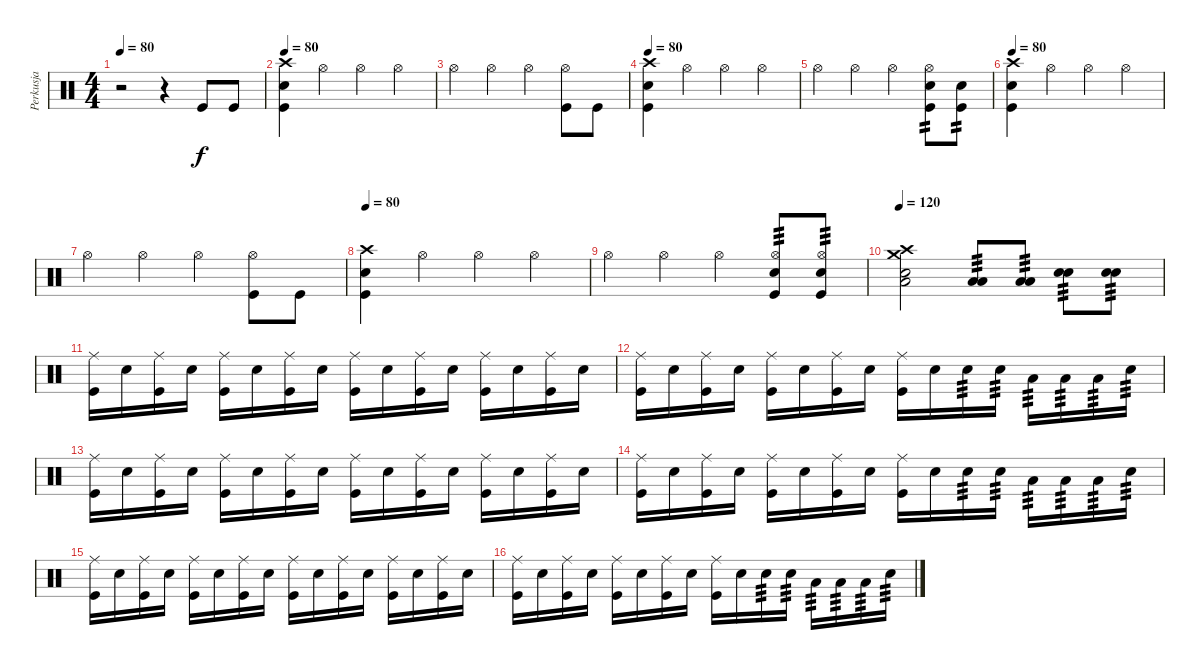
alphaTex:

\track ("Perkusja" "Perkusja") {instrument percussion}
\staff {score}
\articulation defaults
\ts (4 4)
\tempo 80
\clef neutral
\ks c
r.2{dy f} r.4 "Kick (hit)".8 "Kick (hit)".8 |
\tempo 80
("Electric Snare (hit)" "Kick (hit)" "Crash high (hit)").4 "Hi-Hat (open)".4 "Hi-Hat (open)".4 "Hi-Hat (open)".4 |
"Hi-Hat (open)".4 "Hi-Hat (open)".4 "Hi-Hat (open)".4 ("Hi-Hat (open)" "Kick (hit)").8 "Kick (hit)".8 |
\tempo 80
("Electric Snare (hit)" "Kick (hit)" "Crash high (hit)").4 "Hi-Hat (open)".4 "Hi-Hat (open)".4 "Hi-Hat (open)".4 |
"Hi-Hat (open)".4 "Hi-Hat (open)".4 "Hi-Hat (open)".4 ("Hi-Hat (open)" "Electric Snare (hit)" "Kick (hit)").8{tp 2} ("Electric Snare (hit)" "Kick (hit)").8{tp 2} |
\tempo 80
("Crash high (hit)" "Kick (hit)" "Electric Snare (hit)").4 "Hi-Hat (open)".4 "Hi-Hat (open)".4 "Hi-Hat (open)".4 |
"Hi-Hat (open)".4 "Hi-Hat (open)".4 "Hi-Hat (open)".4 ("Hi-Hat (open)" "Kick (hit)").8 "Kick (hit)".8 |
\tempo 80
("Crash high (hit)" "Electric Snare (hit)" "Kick (hit)").4 "Hi-Hat (open)".4 "Hi-Hat (open)".4 "Hi-Hat (open)".4 |
"Hi-Hat (open)".4 "Hi-Hat (open)".4 "Hi-Hat (open)".4 ("Hi-Hat (open)" "Snare (hit) 2" "Kick (hit)").8{tp 3} ("Hi-Hat (open)" "Snare (hit) 2" "Kick (hit)").8{tp 3} |
\tempo 120
("Crash medium (hit)" "Crash high (hit)" "Electric Snare (hit)" "Low Tom (hit)").2 ("Low Tom (hit)" "Low Floor Tom (hit)").8{tp 3} ("Low Tom (hit)" "Low Floor Tom (hit)").8{tp 3} ("Snare (hit) 2" "Electric Snare (hit)").8{tp 3} ("Snare (hit) 2" "Electric Snare (hit)").8{tp 3} |
("Ride (middle)" "Kick (hit)").16 "Snare (hit) 2".16 ("Ride (middle)" "Kick (hit)").16 "Snare (hit) 2".16 ("Ride (middle)" "Kick (hit)").16 "Snare (hit) 2".16 ("Ride (middle)" "Kick (hit)").16 "Snare (hit) 2".16 ("Ride (middle)" "Kick (hit)").16 "Snare (hit) 2".16 ("Ride (middle)" "Kick (hit)").16 "Snare (hit) 2".16 ("Ride (middle)" "Kick (hit)").16 "Snare (hit) 2".16 ("Ride (middle)" "Kick (hit)").16 "Snare (hit) 2".16 |
("Ride (middle)" "Kick (hit)").16 "Snare (hit) 2".16 ("Ride (middle)" "Kick (hit)").16 "Snare (hit) 2".16 ("Ride (middle)" "Kick (hit)").16 "Snare (hit) 2".16 ("Ride (middle)" "Kick (hit)").16 "Snare (hit) 2".16 ("Ride (middle)" "Kick (hit)").16 "Snare (hit) 2".16 "Electric Snare (hit)".16{tp 3} "Electric Snare (hit)".16{tp 3} "Low Floor Tom (hit)".16{tp 3} "Low Floor Tom (hit)".16{tp 3} "Low Tom (hit)".16{tp 3} "Snare (hit) 2".16{tp 3} |
("Ride (middle)" "Kick (hit)").16 "Snare (hit) 2".16 ("Ride (middle)" "Kick (hit)").16 "Snare (hit) 2".16 ("Ride (middle)" "Kick (hit)").16 "Snare (hit) 2".16 ("Ride (middle)" "Kick (hit)").16 "Snare (hit) 2".16 ("Ride (middle)" "Kick (hit)").16 "Snare (hit) 2".16 ("Ride (middle)" "Kick (hit)").16 "Snare (hit) 2".16 ("Ride (middle)" "Kick (hit)").16 "Snare (hit) 2".16 ("Ride (middle)" "Kick (hit)").16 "Snare (hit) 2".16 |
("Ride (middle)" "Kick (hit)").16 "Snare (hit) 2".16 ("Ride (middle)" "Kick (hit)").16 "Snare (hit) 2".16 ("Ride (middle)" "Kick (hit)").16 "Snare (hit) 2".16 ("Ride (middle)" "Kick (hit)").16 "Snare (hit) 2".16 ("Ride (middle)" "Kick (hit)").16 "Snare (hit) 2".16 "Electric Snare (hit)".16{tp 3} "Electric Snare (hit)".16{tp 3} "Low Floor Tom (hit)".16{tp 3} "Low Floor Tom (hit)".16{tp 3} "Low Tom (hit)".16{tp 3} "Snare (hit) 2".16{tp 3} |
("Ride (middle)" "Kick (hit)").16 "Snare (hit) 2".16 ("Ride (middle)" "Kick (hit)").16 "Snare (hit) 2".16 ("Ride (middle)" "Kick (hit)").16 "Snare (hit) 2".16 ("Ride (middle)" "Kick (hit)").16 "Snare (hit) 2".16 ("Ride (middle)" "Kick (hit)").16 "Snare (hit) 2".16 ("Ride (middle)" "Kick (hit)").16 "Snare (hit) 2".16 ("Ride (middle)" "Kick (hit)").16 "Snare (hit) 2".16 ("Ride (middle)" "Kick (hit)").16 "Snare (hit) 2".16 |
("Ride (middle)" "Kick (hit)").16 "Snare (hit) 2".16 ("Ride (middle)" "Kick (hit)").16 "Snare (hit) 2".16 ("Ride (middle)" "Kick (hit)").16 "Snare (hit) 2".16 ("Ride (middle)" "Kick (hit)").16 "Snare (hit) 2".16 ("Ride (middle)" "Kick (hit)").16 "Snare (hit) 2".16 "Electric Snare (hit)".16{tp 3} "Electric Snare (hit)".16{tp 3} "Low Floor Tom (hit)".16{tp 3} "Low Floor Tom (hit)".16{tp 3} "Low Tom (hit)".16{tp 3} "Snare (hit) 2".16{tp 3}
